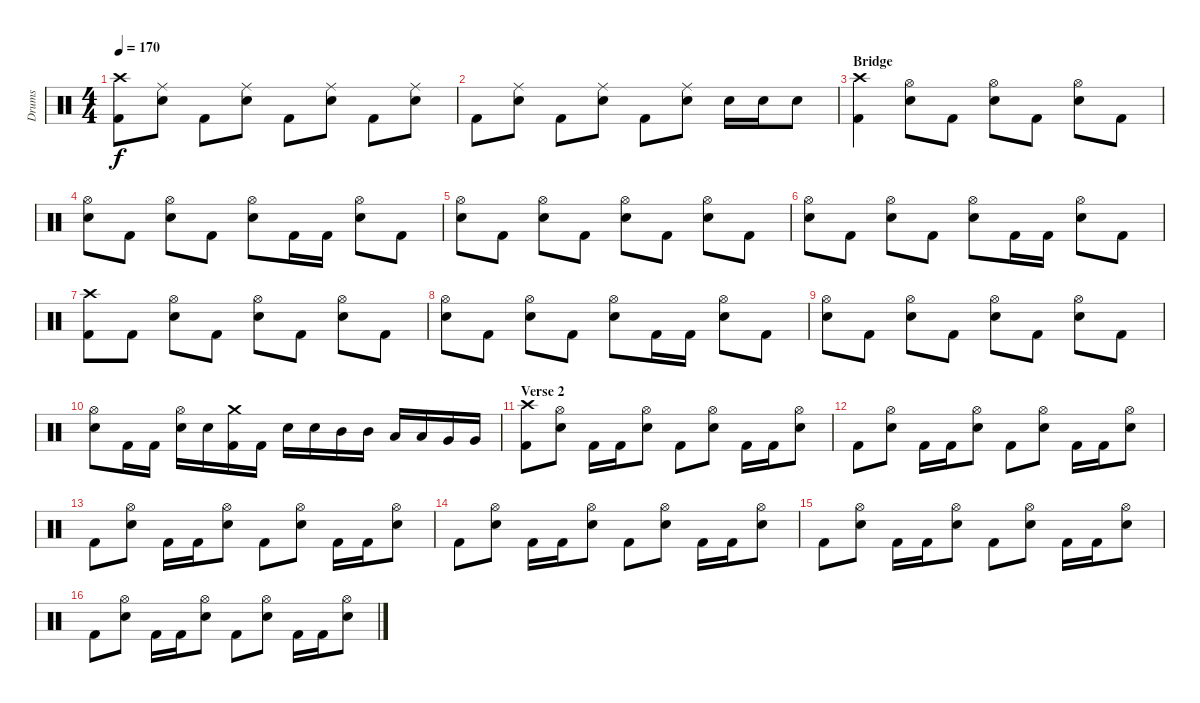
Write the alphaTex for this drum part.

\track ("Drums" "Drums") {instrument percussion}
\staff {score}
\articulation defaults
\ts (4 4)
\tempo 170
\clef neutral
\ks c
("Crash high (hit)" "Kick (hit) 2").8{dy f} ("Ride (middle)" "Snare (hit) 2").8 "Kick (hit) 2".8 ("Ride (middle)" "Snare (hit) 2").8 "Kick (hit) 2".8 ("Ride (middle)" "Snare (hit) 2").8 "Kick (hit) 2".8 ("Ride (middle)" "Snare (hit) 2").8 |
"Kick (hit) 2".8 ("Ride (middle)" "Snare (hit) 2").8 "Kick (hit) 2".8 ("Ride (middle)" "Snare (hit) 2").8 "Kick (hit) 2".8 ("Ride (middle)" "Snare (hit) 2").8 "Snare (hit) 2".16 "Snare (hit) 2".16 "Snare (hit) 2".8 |
\section ("" "Bridge")
("Crash high (hit)" "Kick (hit) 2").4 ("Hi-Hat (open)" "Snare (hit) 2").8 "Kick (hit) 2".8 ("Hi-Hat (open)" "Snare (hit) 2").8 "Kick (hit) 2".8 ("Hi-Hat (open)" "Snare (hit) 2").8 "Kick (hit) 2".8 |
("Hi-Hat (open)" "Snare (hit) 2").8 "Kick (hit) 2".8 ("Hi-Hat (open)" "Snare (hit) 2").8 "Kick (hit) 2".8 ("Hi-Hat (open)" "Snare (hit) 2").8 "Kick (hit) 2".16 "Kick (hit) 2".16 ("Hi-Hat (open)" "Snare (hit) 2").8 "Kick (hit) 2".8 |
("Hi-Hat (open)" "Snare (hit) 2").8 "Kick (hit) 2".8 ("Hi-Hat (open)" "Snare (hit) 2").8 "Kick (hit) 2".8 ("Hi-Hat (open)" "Snare (hit) 2").8 "Kick (hit) 2".8 ("Hi-Hat (open)" "Snare (hit) 2").8 "Kick (hit) 2".8 |
("Hi-Hat (open)" "Snare (hit) 2").8 "Kick (hit) 2".8 ("Hi-Hat (open)" "Snare (hit) 2").8 "Kick (hit) 2".8 ("Hi-Hat (open)" "Snare (hit) 2").8 "Kick (hit) 2".16 "Kick (hit) 2".16 ("Hi-Hat (open)" "Snare (hit) 2").8 "Kick (hit) 2".8 |
("Crash high (hit)" "Kick (hit) 2").8 "Kick (hit) 2".8 ("Hi-Hat (open)" "Snare (hit) 2").8 "Kick (hit) 2".8 ("Hi-Hat (open)" "Snare (hit) 2").8 "Kick (hit) 2".8 ("Hi-Hat (open)" "Snare (hit) 2").8 "Kick (hit) 2".8 |
("Hi-Hat (open)" "Snare (hit) 2").8 "Kick (hit) 2".8 ("Hi-Hat (open)" "Snare (hit) 2").8 "Kick (hit) 2".8 ("Hi-Hat (open)" "Snare (hit) 2").8 "Kick (hit) 2".16 "Kick (hit) 2".16 ("Hi-Hat (open)" "Snare (hit) 2").8 "Kick (hit) 2".8 |
("Hi-Hat (open)" "Snare (hit) 2").8 "Kick (hit) 2".8 ("Hi-Hat (open)" "Snare (hit) 2").8 "Kick (hit) 2".8 ("Hi-Hat (open)" "Snare (hit) 2").8 "Kick (hit) 2".8 ("Hi-Hat (open)" "Snare (hit) 2").8 "Kick (hit) 2".8 |
("Hi-Hat (open)" "Snare (hit) 2").8 "Kick (hit) 2".16 "Kick (hit) 2".16 ("Hi-Hat (open)" "Snare (hit) 2").16 "Snare (hit) 2".16 ("Crash medium (hit)" "Kick (hit) 2").16 "Kick (hit) 2".16 "Snare (hit) 2".16 "Snare (hit) 2".16 "Mid Tom (hit)".16 "Mid Tom (hit)".16 "Low Tom (hit)".16 "Low Tom (hit)".16 "Very Low Tom (hit)".16 "Very Low Tom (hit)".16 |
\section ("" "Verse 2")
("Crash high (hit)" "Kick (hit) 2").8 ("Hi-Hat (open)" "Snare (hit) 2").8 "Kick (hit) 2".16 "Kick (hit) 2".16 ("Hi-Hat (open)" "Snare (hit) 2").8 "Kick (hit) 2".8 ("Hi-Hat (open)" "Snare (hit) 2").8 "Kick (hit) 2".16 "Kick (hit) 2".16 ("Hi-Hat (open)" "Snare (hit) 2").8 |
"Kick (hit) 2".8 ("Hi-Hat (open)" "Snare (hit) 2").8 "Kick (hit) 2".16 "Kick (hit) 2".16 ("Hi-Hat (open)" "Snare (hit) 2").8 "Kick (hit) 2".8 ("Hi-Hat (open)" "Snare (hit) 2").8 "Kick (hit) 2".16 "Kick (hit) 2".16 ("Hi-Hat (open)" "Snare (hit) 2").8 |
"Kick (hit) 2".8 ("Hi-Hat (open)" "Snare (hit) 2").8 "Kick (hit) 2".16 "Kick (hit) 2".16 ("Hi-Hat (open)" "Snare (hit) 2").8 "Kick (hit) 2".8 ("Hi-Hat (open)" "Snare (hit) 2").8 "Kick (hit) 2".16 "Kick (hit) 2".16 ("Hi-Hat (open)" "Snare (hit) 2").8 |
"Kick (hit) 2".8 ("Hi-Hat (open)" "Snare (hit) 2").8 "Kick (hit) 2".16 "Kick (hit) 2".16 ("Hi-Hat (open)" "Snare (hit) 2").8 "Kick (hit) 2".8 ("Hi-Hat (open)" "Snare (hit) 2").8 "Kick (hit) 2".16 "Kick (hit) 2".16 ("Hi-Hat (open)" "Snare (hit) 2").8 |
"Kick (hit) 2".8 ("Hi-Hat (open)" "Snare (hit) 2").8 "Kick (hit) 2".16 "Kick (hit) 2".16 ("Hi-Hat (open)" "Snare (hit) 2").8 "Kick (hit) 2".8 ("Hi-Hat (open)" "Snare (hit) 2").8 "Kick (hit) 2".16 "Kick (hit) 2".16 ("Hi-Hat (open)" "Snare (hit) 2").8 |
"Kick (hit) 2".8 ("Hi-Hat (open)" "Snare (hit) 2").8 "Kick (hit) 2".16 "Kick (hit) 2".16 ("Hi-Hat (open)" "Snare (hit) 2").8 "Kick (hit) 2".8 ("Hi-Hat (open)" "Snare (hit) 2").8 "Kick (hit) 2".16 "Kick (hit) 2".16 ("Hi-Hat (open)" "Snare (hit) 2").8
